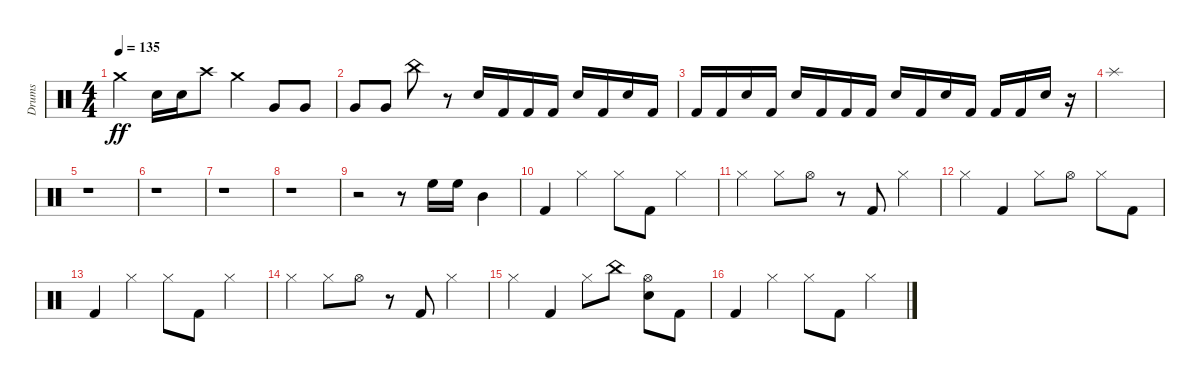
\track ("Drums" "Drums") {instrument percussion}
\staff {score}
\articulation defaults
\ts (4 4)
\tempo 135
\clef neutral
\ks c "Crash medium (hit)".4{dy ff} "Electric Snare (hit)".16 "Electric Snare (hit)".16 "Crash high (hit)".8 "Crash medium (hit)".4 "Very Low Tom (hit)".8 "Very Low Tom (hit)".8
|
"Very Low Tom (hit)".8 "Very Low Tom (hit)".8 "China (hit)".8 r.8 "Electric Snare (hit)".16 "Kick (hit) 2".16 "Kick (hit) 2".16 "Kick (hit) 2".16 "Electric Snare (hit)".16 "Kick (hit) 2".16 "Electric Snare (hit)".16 "Kick (hit) 2".16 |
"Kick (hit) 2".16 "Kick (hit) 2".16 "Electric Snare (hit)".16 "Kick (hit) 2".16 "Electric Snare (hit)".16 "Kick (hit) 2".16 "Kick (hit) 2".16 "Kick (hit) 2".16 "Electric Snare (hit)".16 "Kick (hit) 2".16 "Electric Snare (hit)".16 "Kick (hit) 2".16 "Kick (hit) 2".16 "Kick (hit) 2".16 "Electric Snare (hit)".16 r.16 |
"Splash (hit)".1 |
r.1 |
r.1 |
r.1 |
r.1 |
r.2 r.8 "High Floor Tom (hit)".16 "High Floor Tom (hit)".16 "Mid Tom (hit)".4 |
"Kick (hit) 2".4 "Hi-Hat (closed)".4 "Hi-Hat (closed)".8 "Kick (hit) 2".8 "Hi-Hat (closed)".4 |
"Hi-Hat (closed)".4 "Hi-Hat (closed)".8 "Hi-Hat (open)".8 r.8 "Kick (hit) 2".8 "Hi-Hat (closed)".4 |
"Hi-Hat (closed)".4 "Kick (hit) 2".4 "Hi-Hat (closed)".8 "Hi-Hat (open)".8 "Hi-Hat (closed)".8 "Kick (hit) 2".8 |
"Kick (hit) 2".4 "Hi-Hat (closed)".4 "Hi-Hat (closed)".8 "Kick (hit) 2".8 "Hi-Hat (closed)".4 |
"Hi-Hat (closed)".4 "Hi-Hat (closed)".8 "Hi-Hat (open)".8 r.8 "Kick (hit) 2".8 "Hi-Hat (closed)".4 |
"Hi-Hat (closed)".4 "Kick (hit) 2".4 "Hi-Hat (closed)".8 "China (hit)".8 ("Electric Snare (hit)" "Hi-Hat (open)").8 "Kick (hit) 2".8 |
"Kick (hit) 2".4 "Hi-Hat (closed)".4 "Hi-Hat (closed)".8 "Kick (hit) 2".8 "Hi-Hat (closed)".4
